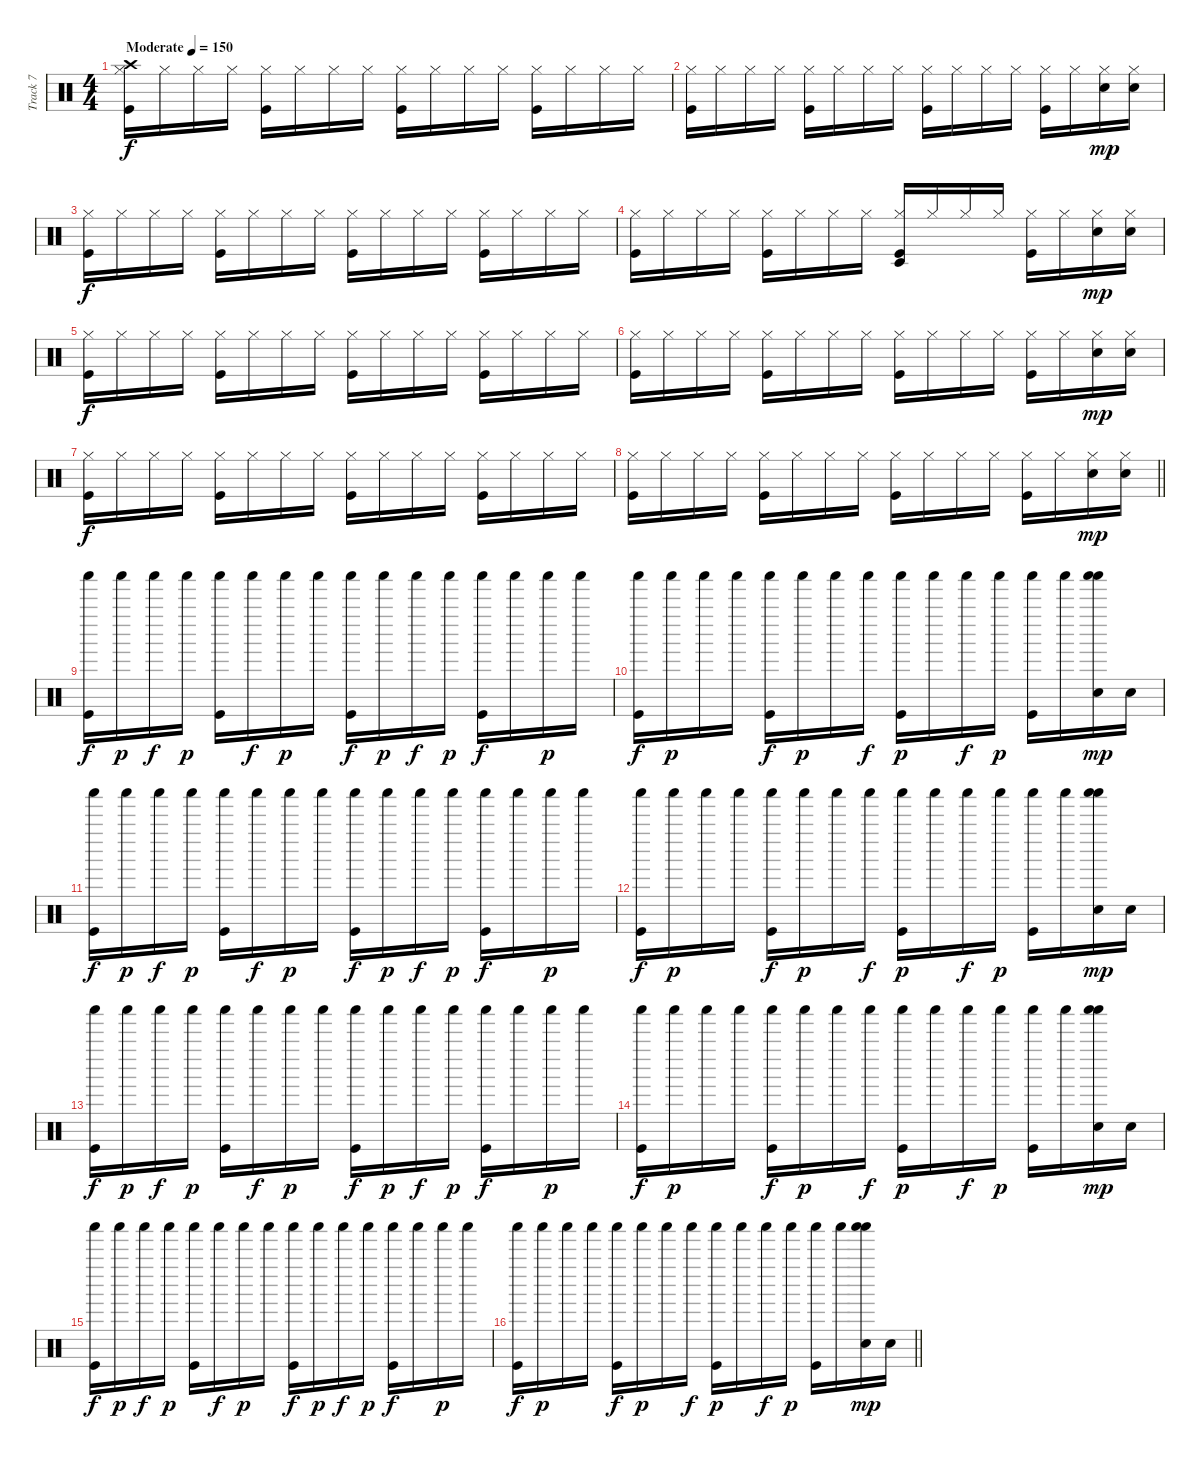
\track ("Track 7" "Track 7") {instrument percussion}
\staff {score}
\articulation defaults
\ts (4 4)
\section ("" "")
\tempo (150 "Moderate")
\clef neutral
\ks c
("Crash high (hit)" "Kick (hit)" "Hi-Hat (closed)").16{dy f} "Hi-Hat (closed)".16 "Hi-Hat (closed)".16 "Hi-Hat (closed)".16 ("Kick (hit)" "Hi-Hat (closed)").16 "Hi-Hat (closed)".16 "Hi-Hat (closed)".16 "Hi-Hat (closed)".16 ("Kick (hit)" "Hi-Hat (closed)").16 "Hi-Hat (closed)".16 "Hi-Hat (closed)".16 "Hi-Hat (closed)".16 ("Kick (hit)" "Hi-Hat (closed)").16 "Hi-Hat (closed)".16 "Hi-Hat (closed)".16 "Hi-Hat (closed)".16 |
("Kick (hit)" "Hi-Hat (closed)").16 "Hi-Hat (closed)".16 "Hi-Hat (closed)".16 "Hi-Hat (closed)".16 ("Kick (hit)" "Hi-Hat (closed)").16 "Hi-Hat (closed)".16 "Hi-Hat (closed)".16 "Hi-Hat (closed)".16 ("Kick (hit)" "Hi-Hat (closed)").16 "Hi-Hat (closed)".16 "Hi-Hat (closed)".16 "Hi-Hat (closed)".16 ("Kick (hit)" "Hi-Hat (closed)").16 "Hi-Hat (closed)".16 ("Snare (hit) 2" "Hi-Hat (closed)").16{dy mp} ("Snare (hit) 2" "Hi-Hat (closed)").16 |
("Kick (hit)" "Hi-Hat (closed)").16{dy f} "Hi-Hat (closed)".16 "Hi-Hat (closed)".16 "Hi-Hat (closed)".16 ("Kick (hit)" "Hi-Hat (closed)").16 "Hi-Hat (closed)".16 "Hi-Hat (closed)".16 "Hi-Hat (closed)".16 ("Kick (hit)" "Hi-Hat (closed)").16 "Hi-Hat (closed)".16 "Hi-Hat (closed)".16 "Hi-Hat (closed)".16 ("Kick (hit)" "Hi-Hat (closed)").16 "Hi-Hat (closed)".16 "Hi-Hat (closed)".16 "Hi-Hat (closed)".16 |
("Kick (hit)" "Hi-Hat (closed)").16 "Hi-Hat (closed)".16 "Hi-Hat (closed)".16 "Hi-Hat (closed)".16 ("Kick (hit)" "Hi-Hat (closed)").16 "Hi-Hat (closed)".16 "Hi-Hat (closed)".16 "Hi-Hat (closed)".16 ("Timbale low (hit)" "Kick (hit)" "Hi-Hat (closed)").16 "Hi-Hat (closed)".16 "Hi-Hat (closed)".16 "Hi-Hat (closed)".16 ("Kick (hit)" "Hi-Hat (closed)").16 "Hi-Hat (closed)".16 ("Snare (hit) 2" "Hi-Hat (closed)").16{dy mp} ("Snare (hit) 2" "Hi-Hat (closed)").16 |
("Kick (hit)" "Hi-Hat (closed)").16{dy f} "Hi-Hat (closed)".16 "Hi-Hat (closed)".16 "Hi-Hat (closed)".16 ("Kick (hit)" "Hi-Hat (closed)").16 "Hi-Hat (closed)".16 "Hi-Hat (closed)".16 "Hi-Hat (closed)".16 ("Kick (hit)" "Hi-Hat (closed)").16 "Hi-Hat (closed)".16 "Hi-Hat (closed)".16 "Hi-Hat (closed)".16 ("Kick (hit)" "Hi-Hat (closed)").16 "Hi-Hat (closed)".16 "Hi-Hat (closed)".16 "Hi-Hat (closed)".16 |
("Kick (hit)" "Hi-Hat (closed)").16 "Hi-Hat (closed)".16 "Hi-Hat (closed)".16 "Hi-Hat (closed)".16 ("Kick (hit)" "Hi-Hat (closed)").16 "Hi-Hat (closed)".16 "Hi-Hat (closed)".16 "Hi-Hat (closed)".16 ("Kick (hit)" "Hi-Hat (closed)").16 "Hi-Hat (closed)".16 "Hi-Hat (closed)".16 "Hi-Hat (closed)".16 ("Kick (hit)" "Hi-Hat (closed)").16 "Hi-Hat (closed)".16 ("Snare (hit) 2" "Hi-Hat (closed)").16{dy mp} ("Snare (hit) 2" "Hi-Hat (closed)").16 |
("Kick (hit)" "Hi-Hat (closed)").16{dy f} "Hi-Hat (closed)".16 "Hi-Hat (closed)".16 "Hi-Hat (closed)".16 ("Kick (hit)" "Hi-Hat (closed)").16 "Hi-Hat (closed)".16 "Hi-Hat (closed)".16 "Hi-Hat (closed)".16 ("Kick (hit)" "Hi-Hat (closed)").16 "Hi-Hat (closed)".16 "Hi-Hat (closed)".16 "Hi-Hat (closed)".16 ("Kick (hit)" "Hi-Hat (closed)").16 "Hi-Hat (closed)".16 "Hi-Hat (closed)".16 "Hi-Hat (closed)".16 |
\barLineRight lightlight
("Kick (hit)" "Hi-Hat (closed)").16 "Hi-Hat (closed)".16 "Hi-Hat (closed)".16 "Hi-Hat (closed)".16 ("Kick (hit)" "Hi-Hat (closed)").16 "Hi-Hat (closed)".16 "Hi-Hat (closed)".16 "Hi-Hat (closed)".16 ("Kick (hit)" "Hi-Hat (closed)").16 "Hi-Hat (closed)".16 "Hi-Hat (closed)".16 "Hi-Hat (closed)".16 ("Kick (hit)" "Hi-Hat (closed)").16 "Hi-Hat (closed)".16 ("Snare (hit) 2" "Hi-Hat (closed)").16{dy mp} ("Snare (hit) 2" "Hi-Hat (closed)").16 |
\section ("" "")
("Kick (hit)" "Shaker (hit)").16{dy f} "Shaker (hit)".16{dy p} "Shaker (hit)".16{dy f} "Shaker (hit)".16{dy p} ("Shaker (hit)" "Kick (hit)").16 "Shaker (hit)".16{dy f} "Shaker (hit)".16{dy p} "Shaker (hit)".16 ("Kick (hit)" "Shaker (hit)").16{dy f} "Shaker (hit)".16{dy p} "Shaker (hit)".16{dy f} "Shaker (hit)".16{dy p} ("Kick (hit)" "Shaker (hit)").16{dy f} "Shaker (hit)".16 "Shaker (hit)".16{dy p} "Shaker (hit)".16 |
("Kick (hit)" "Shaker (hit)").16{dy f} "Shaker (hit)".16{dy p} "Shaker (hit)".16 "Shaker (hit)".16 ("Kick (hit)" "Shaker (hit)").16{dy f} "Shaker (hit)".16{dy p} "Shaker (hit)".16 "Shaker (hit)".16{dy f} ("Shaker (hit)" "Kick (hit)").16{dy p} "Shaker (hit)".16 "Shaker (hit)".16{dy f} "Shaker (hit)".16{dy p} ("Shaker (hit)" "Kick (hit)").16 "Shaker (hit)".16 ("Shaker (hit)" "Snare (hit) 2" "Shaker (hit)").16{dy mp} "Snare (hit) 2".16 |
("Kick (hit)" "Shaker (hit)").16{dy f} "Shaker (hit)".16{dy p} "Shaker (hit)".16{dy f} "Shaker (hit)".16{dy p} ("Shaker (hit)" "Kick (hit)").16 "Shaker (hit)".16{dy f} "Shaker (hit)".16{dy p} "Shaker (hit)".16 ("Kick (hit)" "Shaker (hit)").16{dy f} "Shaker (hit)".16{dy p} "Shaker (hit)".16{dy f} "Shaker (hit)".16{dy p} ("Kick (hit)" "Shaker (hit)").16{dy f} "Shaker (hit)".16 "Shaker (hit)".16{dy p} "Shaker (hit)".16 |
("Kick (hit)" "Shaker (hit)").16{dy f} "Shaker (hit)".16{dy p} "Shaker (hit)".16 "Shaker (hit)".16 ("Kick (hit)" "Shaker (hit)").16{dy f} "Shaker (hit)".16{dy p} "Shaker (hit)".16 "Shaker (hit)".16{dy f} ("Shaker (hit)" "Kick (hit)").16{dy p} "Shaker (hit)".16 "Shaker (hit)".16{dy f} "Shaker (hit)".16{dy p} ("Shaker (hit)" "Kick (hit)").16 "Shaker (hit)".16 ("Shaker (hit)" "Snare (hit) 2" "Shaker (hit)").16{dy mp} "Snare (hit) 2".16 |
("Kick (hit)" "Shaker (hit)").16{dy f} "Shaker (hit)".16{dy p} "Shaker (hit)".16{dy f} "Shaker (hit)".16{dy p} ("Shaker (hit)" "Kick (hit)").16 "Shaker (hit)".16{dy f} "Shaker (hit)".16{dy p} "Shaker (hit)".16 ("Kick (hit)" "Shaker (hit)").16{dy f} "Shaker (hit)".16{dy p} "Shaker (hit)".16{dy f} "Shaker (hit)".16{dy p} ("Kick (hit)" "Shaker (hit)").16{dy f} "Shaker (hit)".16 "Shaker (hit)".16{dy p} "Shaker (hit)".16 |
("Kick (hit)" "Shaker (hit)").16{dy f} "Shaker (hit)".16{dy p} "Shaker (hit)".16 "Shaker (hit)".16 ("Kick (hit)" "Shaker (hit)").16{dy f} "Shaker (hit)".16{dy p} "Shaker (hit)".16 "Shaker (hit)".16{dy f} ("Shaker (hit)" "Kick (hit)").16{dy p} "Shaker (hit)".16 "Shaker (hit)".16{dy f} "Shaker (hit)".16{dy p} ("Shaker (hit)" "Kick (hit)").16 "Shaker (hit)".16 ("Shaker (hit)" "Snare (hit) 2" "Shaker (hit)").16{dy mp} "Snare (hit) 2".16 |
("Kick (hit)" "Shaker (hit)").16{dy f} "Shaker (hit)".16{dy p} "Shaker (hit)".16{dy f} "Shaker (hit)".16{dy p} ("Shaker (hit)" "Kick (hit)").16 "Shaker (hit)".16{dy f} "Shaker (hit)".16{dy p} "Shaker (hit)".16 ("Kick (hit)" "Shaker (hit)").16{dy f} "Shaker (hit)".16{dy p} "Shaker (hit)".16{dy f} "Shaker (hit)".16{dy p} ("Kick (hit)" "Shaker (hit)").16{dy f} "Shaker (hit)".16 "Shaker (hit)".16{dy p} "Shaker (hit)".16 |
\barLineRight lightlight
("Kick (hit)" "Shaker (hit)").16{dy f} "Shaker (hit)".16{dy p} "Shaker (hit)".16 "Shaker (hit)".16 ("Kick (hit)" "Shaker (hit)").16{dy f} "Shaker (hit)".16{dy p} "Shaker (hit)".16 "Shaker (hit)".16{dy f} ("Shaker (hit)" "Kick (hit)").16{dy p} "Shaker (hit)".16 "Shaker (hit)".16{dy f} "Shaker (hit)".16{dy p} ("Shaker (hit)" "Kick (hit)").16 "Shaker (hit)".16 ("Shaker (hit)" "Snare (hit) 2" "Shaker (hit)").16{dy mp} "Snare (hit) 2".16
